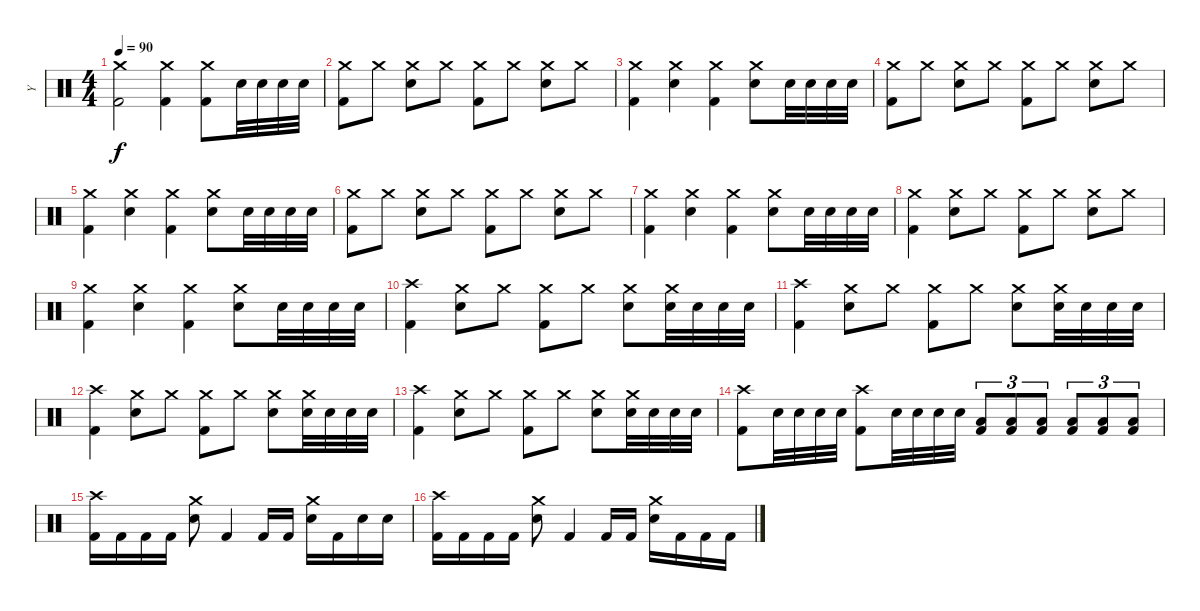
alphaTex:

\track ("Y" "Y") {instrument percussion}
\staff {score}
\articulation defaults
\ts (4 4)
\tempo 90
\clef neutral
\ks c
("Crash medium (hit)" "Kick (hit) 2").2{dy f} ("Crash medium (hit)" "Kick (hit) 2").4 ("Crash medium (hit)" "Kick (hit) 2").8 "Electric Snare (hit)".32 "Electric Snare (hit)".32 "Electric Snare (hit)".32 "Electric Snare (hit)".32 |
("Crash medium (hit)" "Kick (hit) 2").8 "Crash medium (hit)".8 ("Crash medium (hit)" "Electric Snare (hit)").8 "Crash medium (hit)".8 ("Crash medium (hit)" "Kick (hit) 2").8 "Crash medium (hit)".8 ("Crash medium (hit)" "Electric Snare (hit)").8 "Crash medium (hit)".8 |
("Crash medium (hit)" "Kick (hit) 2").4 ("Crash medium (hit)" "Electric Snare (hit)").4 ("Crash medium (hit)" "Kick (hit) 2").4 ("Crash medium (hit)" "Electric Snare (hit)").8 "Electric Snare (hit)".32 "Electric Snare (hit)".32 "Electric Snare (hit)".32 "Electric Snare (hit)".32 |
("Crash medium (hit)" "Kick (hit) 2").8 "Crash medium (hit)".8 ("Crash medium (hit)" "Electric Snare (hit)").8 "Crash medium (hit)".8 ("Crash medium (hit)" "Kick (hit) 2").8 "Crash medium (hit)".8 ("Crash medium (hit)" "Electric Snare (hit)").8 "Crash medium (hit)".8 |
("Crash medium (hit)" "Kick (hit) 2").4 ("Crash medium (hit)" "Electric Snare (hit)").4 ("Crash medium (hit)" "Kick (hit) 2").4 ("Crash medium (hit)" "Electric Snare (hit)").8 "Electric Snare (hit)".32 "Electric Snare (hit)".32 "Electric Snare (hit)".32 "Electric Snare (hit)".32 |
("Crash medium (hit)" "Kick (hit) 2").8 "Crash medium (hit)".8 ("Crash medium (hit)" "Electric Snare (hit)").8 "Crash medium (hit)".8 ("Crash medium (hit)" "Kick (hit) 2").8 "Crash medium (hit)".8 ("Crash medium (hit)" "Electric Snare (hit)").8 "Crash medium (hit)".8 |
("Crash medium (hit)" "Kick (hit) 2").4 ("Crash medium (hit)" "Electric Snare (hit)").4 ("Crash medium (hit)" "Kick (hit) 2").4 ("Crash medium (hit)" "Electric Snare (hit)").8 "Electric Snare (hit)".32 "Electric Snare (hit)".32 "Electric Snare (hit)".32 "Electric Snare (hit)".32 |
("Crash medium (hit)" "Kick (hit) 2").4 ("Crash medium (hit)" "Electric Snare (hit)").8 "Crash medium (hit)".8 ("Crash medium (hit)" "Kick (hit) 2").8 "Crash medium (hit)".8 ("Crash medium (hit)" "Electric Snare (hit)").8 "Crash medium (hit)".8 |
("Crash medium (hit)" "Kick (hit) 2").4 ("Crash medium (hit)" "Electric Snare (hit)").4 ("Crash medium (hit)" "Kick (hit) 2").4 ("Crash medium (hit)" "Electric Snare (hit)").8 "Electric Snare (hit)".32 "Electric Snare (hit)".32 "Electric Snare (hit)".32 "Electric Snare (hit)".32 |
("Crash high (hit)" "Kick (hit) 2").4 ("Crash medium (hit)" "Electric Snare (hit)").8 "Crash medium (hit)".8 ("Crash medium (hit)" "Kick (hit) 2").8 "Crash medium (hit)".8 ("Crash medium (hit)" "Electric Snare (hit)").8 ("Crash medium (hit)" "Electric Snare (hit)").32 "Electric Snare (hit)".32 "Electric Snare (hit)".32 "Electric Snare (hit)".32 |
("Crash high (hit)" "Kick (hit) 2").4 ("Crash medium (hit)" "Electric Snare (hit)").8 "Crash medium (hit)".8 ("Crash medium (hit)" "Kick (hit) 2").8 "Crash medium (hit)".8 ("Crash medium (hit)" "Electric Snare (hit)").8 ("Crash medium (hit)" "Electric Snare (hit)").32 "Electric Snare (hit)".32 "Electric Snare (hit)".32 "Electric Snare (hit)".32 |
("Crash high (hit)" "Kick (hit) 2").4 ("Crash medium (hit)" "Electric Snare (hit)").8 "Crash medium (hit)".8 ("Crash medium (hit)" "Kick (hit) 2").8 "Crash medium (hit)".8 ("Crash medium (hit)" "Electric Snare (hit)").8 ("Crash medium (hit)" "Electric Snare (hit)").32 "Electric Snare (hit)".32 "Electric Snare (hit)".32 "Electric Snare (hit)".32 |
("Crash high (hit)" "Kick (hit) 2").4 ("Crash medium (hit)" "Electric Snare (hit)").8 "Crash medium (hit)".8 ("Crash medium (hit)" "Kick (hit) 2").8 "Crash medium (hit)".8 ("Crash medium (hit)" "Electric Snare (hit)").8 ("Crash medium (hit)" "Electric Snare (hit)").32 "Electric Snare (hit)".32 "Electric Snare (hit)".32 "Electric Snare (hit)".32 |
("Crash high (hit)" "Kick (hit) 2").8 "Electric Snare (hit)".32 "Electric Snare (hit)".32 "Electric Snare (hit)".32 "Electric Snare (hit)".32 ("Crash high (hit)" "Kick (hit) 2").8 "Electric Snare (hit)".32 "Electric Snare (hit)".32 "Electric Snare (hit)".32 "Electric Snare (hit)".32 ("Low Tom (hit)" "Kick (hit) 2").8{tu (3 2)} ("Low Tom (hit)" "Kick (hit) 2").8{tu (3 2)} ("Low Tom (hit)" "Kick (hit) 2").8{tu (3 2)} ("Low Tom (hit)" "Kick (hit) 2").8{tu (3 2)} ("Low Tom (hit)" "Kick (hit) 2").8{tu (3 2)} ("Low Tom (hit)" "Kick (hit) 2").8{tu (3 2)} |
("Crash high (hit)" "Kick (hit) 2").16 "Kick (hit) 2".16 "Kick (hit) 2".16 "Kick (hit) 2".16 ("Crash medium (hit)" "Electric Snare (hit)").8 "Kick (hit) 2".4 "Kick (hit) 2".16 "Kick (hit) 2".16 ("Crash medium (hit)" "Electric Snare (hit)").16 "Kick (hit) 2".16 "Electric Snare (hit)".16 "Electric Snare (hit)".16 |
("Crash high (hit)" "Kick (hit) 2").16 "Kick (hit) 2".16 "Kick (hit) 2".16 "Kick (hit) 2".16 ("Crash medium (hit)" "Electric Snare (hit)").8 "Kick (hit) 2".4 "Kick (hit) 2".16 "Kick (hit) 2".16 ("Crash medium (hit)" "Electric Snare (hit)").16 "Kick (hit) 2".16 "Kick (hit) 2".16 "Kick (hit) 2".16
